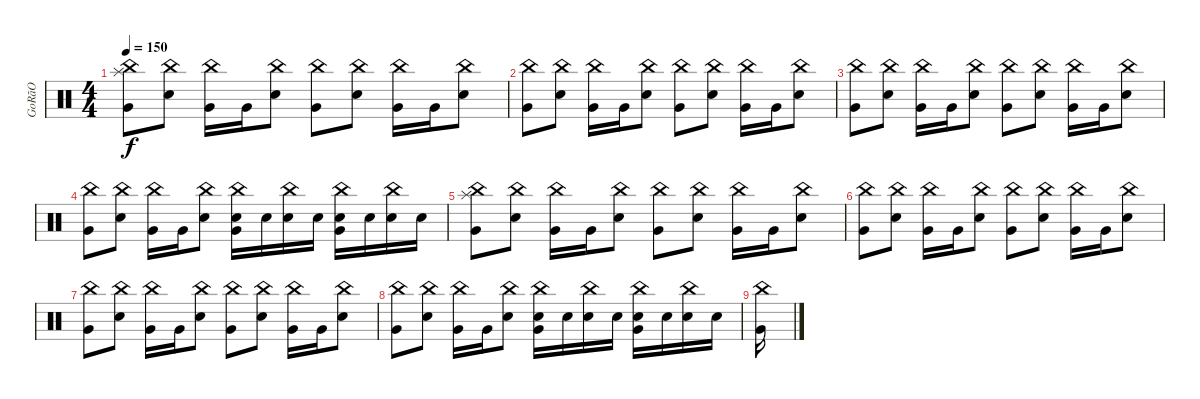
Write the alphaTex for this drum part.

\track ("GoRãO" "GoRãO") {instrument percussion}
\staff {score}
\articulation defaults
\ts (4 4)
\tempo 150
\clef neutral
\ks c
("Very Low Tom (hit)" "Splash (hit)" "China (hit)").8{dy f} ("Electric Snare (hit)" "China (hit)").8 ("Very Low Tom (hit)" "China (hit)").16 "Very Low Tom (hit)".16 ("Electric Snare (hit)" "China (hit)").8 ("Very Low Tom (hit)" "China (hit)").8 ("Electric Snare (hit)" "China (hit)").8 ("Very Low Tom (hit)" "China (hit)").16 "Very Low Tom (hit)".16 ("Electric Snare (hit)" "China (hit)").8 |
("Very Low Tom (hit)" "China (hit)").8 ("Electric Snare (hit)" "China (hit)").8 ("Very Low Tom (hit)" "China (hit)").16 "Very Low Tom (hit)".16 ("Electric Snare (hit)" "China (hit)").8 ("Very Low Tom (hit)" "China (hit)").8 ("Electric Snare (hit)" "China (hit)").8 ("Very Low Tom (hit)" "China (hit)").16 "Very Low Tom (hit)".16 ("Electric Snare (hit)" "China (hit)").8 |
("Very Low Tom (hit)" "China (hit)").8 ("Electric Snare (hit)" "China (hit)").8 ("Very Low Tom (hit)" "China (hit)").16 "Very Low Tom (hit)".16 ("Electric Snare (hit)" "China (hit)").8 ("Very Low Tom (hit)" "China (hit)").8 ("Electric Snare (hit)" "China (hit)").8 ("Very Low Tom (hit)" "China (hit)").16 "Very Low Tom (hit)".16 ("Electric Snare (hit)" "China (hit)").8 |
("Very Low Tom (hit)" "China (hit)").8 ("Electric Snare (hit)" "China (hit)").8 ("Very Low Tom (hit)" "China (hit)").16 "Very Low Tom (hit)".16 ("Electric Snare (hit)" "China (hit)").8 ("Snare (hit) 2" "Very Low Tom (hit)" "China (hit)").16 "Snare (hit) 2".16 ("Snare (hit) 2" "China (hit)").16 "Snare (hit) 2".16 ("Snare (hit) 2" "Very Low Tom (hit)" "China (hit)").16 "Snare (hit) 2".16 ("Snare (hit) 2" "China (hit)").16 "Snare (hit) 2".16 |
("Very Low Tom (hit)" "Splash (hit)" "China (hit)").8 ("Electric Snare (hit)" "China (hit)").8 ("Very Low Tom (hit)" "China (hit)").16 "Very Low Tom (hit)".16 ("Electric Snare (hit)" "China (hit)").8 ("Very Low Tom (hit)" "China (hit)").8 ("Electric Snare (hit)" "China (hit)").8 ("Very Low Tom (hit)" "China (hit)").16 "Very Low Tom (hit)".16 ("Electric Snare (hit)" "China (hit)").8 |
("Very Low Tom (hit)" "China (hit)").8 ("Electric Snare (hit)" "China (hit)").8 ("Very Low Tom (hit)" "China (hit)").16 "Very Low Tom (hit)".16 ("Electric Snare (hit)" "China (hit)").8 ("Very Low Tom (hit)" "China (hit)").8 ("Electric Snare (hit)" "China (hit)").8 ("Very Low Tom (hit)" "China (hit)").16 "Very Low Tom (hit)".16 ("Electric Snare (hit)" "China (hit)").8 |
("Very Low Tom (hit)" "China (hit)").8 ("Electric Snare (hit)" "China (hit)").8 ("Very Low Tom (hit)" "China (hit)").16 "Very Low Tom (hit)".16 ("Electric Snare (hit)" "China (hit)").8 ("Very Low Tom (hit)" "China (hit)").8 ("Electric Snare (hit)" "China (hit)").8 ("Very Low Tom (hit)" "China (hit)").16 "Very Low Tom (hit)".16 ("Electric Snare (hit)" "China (hit)").8 |
("Very Low Tom (hit)" "China (hit)").8 ("Electric Snare (hit)" "China (hit)").8 ("Very Low Tom (hit)" "China (hit)").16 "Very Low Tom (hit)".16 ("Electric Snare (hit)" "China (hit)").8 ("Snare (hit) 2" "Very Low Tom (hit)" "China (hit)").16 "Snare (hit) 2".16 ("Snare (hit) 2" "China (hit)").16 "Snare (hit) 2".16 ("Snare (hit) 2" "Very Low Tom (hit)" "China (hit)").16 "Snare (hit) 2".16 ("Snare (hit) 2" "China (hit)").16 "Snare (hit) 2".16 |
("Very Low Tom (hit)" "China (hit)").16
